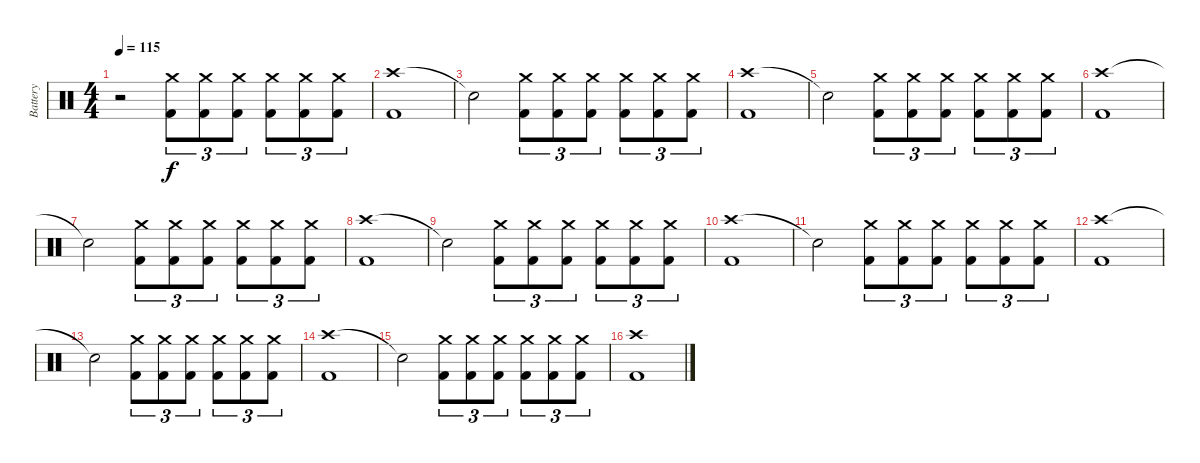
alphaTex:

\track ("Battery" "Battery") {instrument percussion}
\staff {score}
\articulation defaults
\ts (4 4)
\tempo 115
\clef neutral
\ks c
r.2{dy f} ("Crash medium (hit)" "Kick (hit) 2").8{tu (3 2)} ("Crash medium (hit)" "Kick (hit) 2").8{tu (3 2)} ("Crash medium (hit)" "Kick (hit) 2").8{tu (3 2)} ("Crash medium (hit)" "Kick (hit) 2").8{tu (3 2)} ("Crash medium (hit)" "Kick (hit) 2").8{tu (3 2)} ("Crash medium (hit)" "Kick (hit) 2").8{tu (3 2)} |
("Crash high (hit)" "Kick (hit) 2").1 |
"Snare (hit)"{t}.2 ("Crash medium (hit)" "Kick (hit) 2").8{tu (3 2)} ("Crash medium (hit)" "Kick (hit) 2").8{tu (3 2)} ("Crash medium (hit)" "Kick (hit) 2").8{tu (3 2)} ("Crash medium (hit)" "Kick (hit) 2").8{tu (3 2)} ("Crash medium (hit)" "Kick (hit) 2").8{tu (3 2)} ("Crash medium (hit)" "Kick (hit) 2").8{tu (3 2)} |
("Crash high (hit)" "Kick (hit) 2").1 |
"Snare (hit)"{t}.2 ("Crash medium (hit)" "Kick (hit) 2").8{tu (3 2)} ("Crash medium (hit)" "Kick (hit) 2").8{tu (3 2)} ("Crash medium (hit)" "Kick (hit) 2").8{tu (3 2)} ("Crash medium (hit)" "Kick (hit) 2").8{tu (3 2)} ("Crash medium (hit)" "Kick (hit) 2").8{tu (3 2)} ("Crash medium (hit)" "Kick (hit) 2").8{tu (3 2)} |
("Crash high (hit)" "Kick (hit) 2").1 |
"Snare (hit)"{t}.2 ("Crash medium (hit)" "Kick (hit) 2").8{tu (3 2)} ("Crash medium (hit)" "Kick (hit) 2").8{tu (3 2)} ("Crash medium (hit)" "Kick (hit) 2").8{tu (3 2)} ("Crash medium (hit)" "Kick (hit) 2").8{tu (3 2)} ("Crash medium (hit)" "Kick (hit) 2").8{tu (3 2)} ("Crash medium (hit)" "Kick (hit) 2").8{tu (3 2)} |
("Crash high (hit)" "Kick (hit) 2").1 |
"Snare (hit)"{t}.2 ("Crash medium (hit)" "Kick (hit) 2").8{tu (3 2)} ("Crash medium (hit)" "Kick (hit) 2").8{tu (3 2)} ("Crash medium (hit)" "Kick (hit) 2").8{tu (3 2)} ("Crash medium (hit)" "Kick (hit) 2").8{tu (3 2)} ("Crash medium (hit)" "Kick (hit) 2").8{tu (3 2)} ("Crash medium (hit)" "Kick (hit) 2").8{tu (3 2)} |
("Crash high (hit)" "Kick (hit) 2").1 |
"Snare (hit)"{t}.2 ("Crash medium (hit)" "Kick (hit) 2").8{tu (3 2)} ("Crash medium (hit)" "Kick (hit) 2").8{tu (3 2)} ("Crash medium (hit)" "Kick (hit) 2").8{tu (3 2)} ("Crash medium (hit)" "Kick (hit) 2").8{tu (3 2)} ("Crash medium (hit)" "Kick (hit) 2").8{tu (3 2)} ("Crash medium (hit)" "Kick (hit) 2").8{tu (3 2)} |
("Crash high (hit)" "Kick (hit) 2").1 |
"Snare (hit)"{t}.2 ("Crash medium (hit)" "Kick (hit) 2").8{tu (3 2)} ("Crash medium (hit)" "Kick (hit) 2").8{tu (3 2)} ("Crash medium (hit)" "Kick (hit) 2").8{tu (3 2)} ("Crash medium (hit)" "Kick (hit) 2").8{tu (3 2)} ("Crash medium (hit)" "Kick (hit) 2").8{tu (3 2)} ("Crash medium (hit)" "Kick (hit) 2").8{tu (3 2)} |
("Crash high (hit)" "Kick (hit) 2").1 |
"Snare (hit)"{t}.2 ("Crash medium (hit)" "Kick (hit) 2").8{tu (3 2)} ("Crash medium (hit)" "Kick (hit) 2").8{tu (3 2)} ("Crash medium (hit)" "Kick (hit) 2").8{tu (3 2)} ("Crash medium (hit)" "Kick (hit) 2").8{tu (3 2)} ("Crash medium (hit)" "Kick (hit) 2").8{tu (3 2)} ("Crash medium (hit)" "Kick (hit) 2").8{tu (3 2)} |
("Crash high (hit)" "Kick (hit) 2").1
